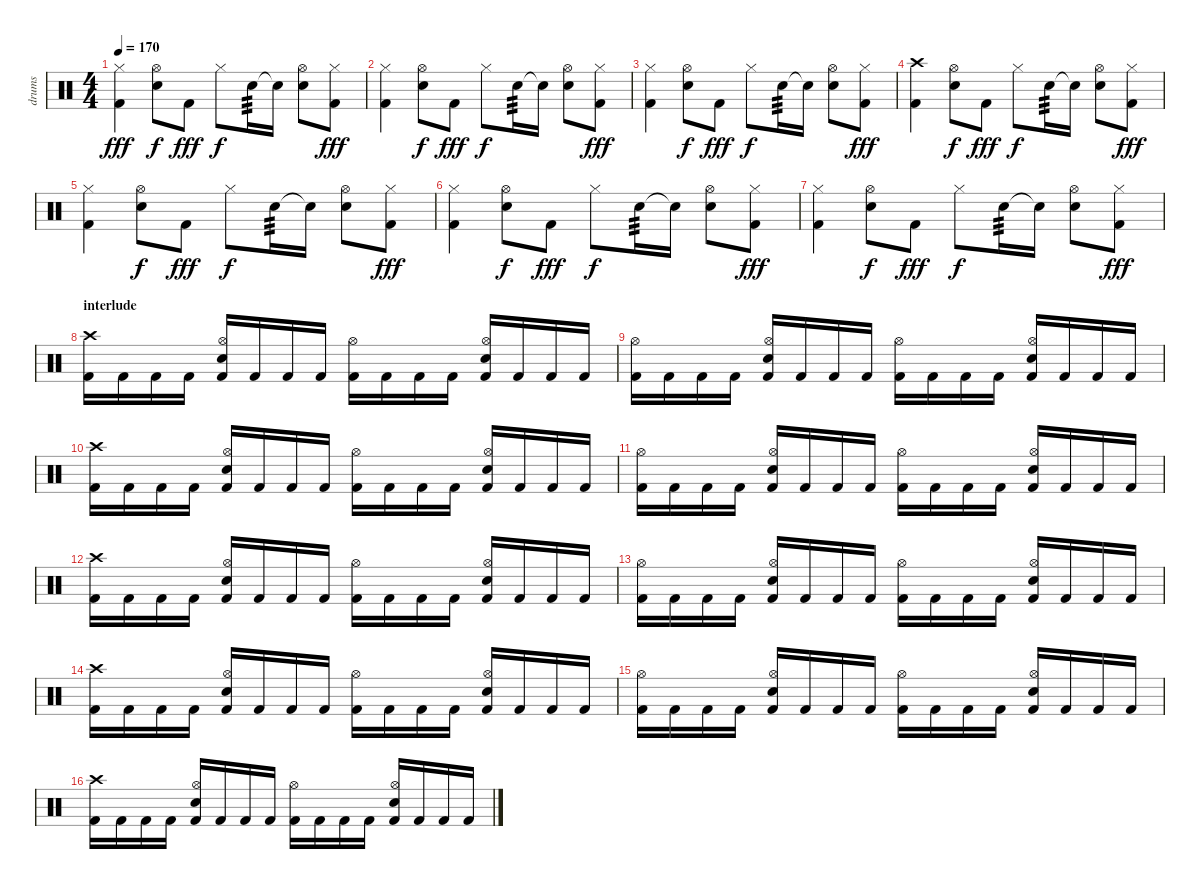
\track ("drums" "drums") {instrument percussion}
\staff {score}
\articulation defaults
\ts (4 4)
\tempo 170
\clef neutral
\ks c
("Hi-Hat (closed)" "Kick (hit) 2").4{dy fff} ("Hi-Hat (open)" "Snare (hit) 2").8{dy f} "Kick (hit) 2".8{dy fff} "Hi-Hat (closed)".8{dy f} "Snare (hit) 2".16{tp 3} "Snare (hit) 2"{t}.16 ("Hi-Hat (open)" "Snare (hit) 2").8 ("Hi-Hat (closed)" "Kick (hit) 2").8{dy fff} |
("Hi-Hat (closed)" "Kick (hit) 2").4 ("Hi-Hat (open)" "Snare (hit) 2").8{dy f} "Kick (hit) 2".8{dy fff} "Hi-Hat (closed)".8{dy f} "Snare (hit) 2".16{tp 3} "Snare (hit) 2"{t}.16 ("Hi-Hat (open)" "Snare (hit) 2").8 ("Hi-Hat (closed)" "Kick (hit) 2").8{dy fff} |
("Hi-Hat (closed)" "Kick (hit) 2").4 ("Hi-Hat (open)" "Snare (hit) 2").8{dy f} "Kick (hit) 2".8{dy fff} "Hi-Hat (closed)".8{dy f} "Snare (hit) 2".16{tp 3} "Snare (hit) 2"{t}.16 ("Hi-Hat (open)" "Snare (hit) 2").8 ("Hi-Hat (closed)" "Kick (hit) 2").8{dy fff} |
("Crash high (hit)" "Kick (hit) 2").4 ("Hi-Hat (open)" "Snare (hit) 2").8{dy f} "Kick (hit) 2".8{dy fff} "Hi-Hat (closed)".8{dy f} "Snare (hit) 2".16{tp 3} "Snare (hit) 2"{t}.16 ("Hi-Hat (open)" "Snare (hit) 2").8 ("Hi-Hat (closed)" "Kick (hit) 2").8{dy fff} |
("Hi-Hat (closed)" "Kick (hit) 2").4 ("Hi-Hat (open)" "Snare (hit) 2").8{dy f} "Kick (hit) 2".8{dy fff} "Hi-Hat (closed)".8{dy f} "Snare (hit) 2".16{tp 3} "Snare (hit) 2"{t}.16 ("Hi-Hat (open)" "Snare (hit) 2").8 ("Hi-Hat (closed)" "Kick (hit) 2").8{dy fff} |
("Hi-Hat (closed)" "Kick (hit) 2").4 ("Hi-Hat (open)" "Snare (hit) 2").8{dy f} "Kick (hit) 2".8{dy fff} "Hi-Hat (closed)".8{dy f} "Snare (hit) 2".16{tp 3} "Snare (hit) 2"{t}.16 ("Hi-Hat (open)" "Snare (hit) 2").8 ("Hi-Hat (closed)" "Kick (hit) 2").8{dy fff} |
("Hi-Hat (closed)" "Kick (hit) 2").4 ("Hi-Hat (open)" "Snare (hit) 2").8{dy f} "Kick (hit) 2".8{dy fff} "Hi-Hat (closed)".8{dy f} "Snare (hit) 2".16{tp 3} "Snare (hit) 2"{t}.16 ("Hi-Hat (open)" "Snare (hit) 2").8 ("Hi-Hat (closed)" "Kick (hit) 2").8{dy fff} |
\section ("" "interlude")
("Crash high (hit)" "Kick (hit) 2").16 "Kick (hit) 2".16 "Kick (hit) 2".16 "Kick (hit) 2".16 ("Hi-Hat (open)" "Snare (hit) 2" "Kick (hit) 2").16 "Kick (hit) 2".16 "Kick (hit) 2".16 "Kick (hit) 2".16 ("Hi-Hat (open)" "Kick (hit) 2").16 "Kick (hit) 2".16 "Kick (hit) 2".16 "Kick (hit) 2".16 ("Hi-Hat (open)" "Snare (hit) 2" "Kick (hit) 2").16 "Kick (hit) 2".16 "Kick (hit) 2".16 "Kick (hit) 2".16 |
("Hi-Hat (open)" "Kick (hit) 2").16 "Kick (hit) 2".16 "Kick (hit) 2".16 "Kick (hit) 2".16 ("Hi-Hat (open)" "Snare (hit) 2" "Kick (hit) 2").16 "Kick (hit) 2".16 "Kick (hit) 2".16 "Kick (hit) 2".16 ("Hi-Hat (open)" "Kick (hit) 2").16 "Kick (hit) 2".16 "Kick (hit) 2".16 "Kick (hit) 2".16 ("Hi-Hat (open)" "Snare (hit) 2" "Kick (hit) 2").16 "Kick (hit) 2".16 "Kick (hit) 2".16 "Kick (hit) 2".16 |
("Crash high (hit)" "Kick (hit) 2").16 "Kick (hit) 2".16 "Kick (hit) 2".16 "Kick (hit) 2".16 ("Hi-Hat (open)" "Snare (hit) 2" "Kick (hit) 2").16 "Kick (hit) 2".16 "Kick (hit) 2".16 "Kick (hit) 2".16 ("Hi-Hat (open)" "Kick (hit) 2").16 "Kick (hit) 2".16 "Kick (hit) 2".16 "Kick (hit) 2".16 ("Hi-Hat (open)" "Snare (hit) 2" "Kick (hit) 2").16 "Kick (hit) 2".16 "Kick (hit) 2".16 "Kick (hit) 2".16 |
("Hi-Hat (open)" "Kick (hit) 2").16 "Kick (hit) 2".16 "Kick (hit) 2".16 "Kick (hit) 2".16 ("Hi-Hat (open)" "Snare (hit) 2" "Kick (hit) 2").16 "Kick (hit) 2".16 "Kick (hit) 2".16 "Kick (hit) 2".16 ("Hi-Hat (open)" "Kick (hit) 2").16 "Kick (hit) 2".16 "Kick (hit) 2".16 "Kick (hit) 2".16 ("Hi-Hat (open)" "Snare (hit) 2" "Kick (hit) 2").16 "Kick (hit) 2".16 "Kick (hit) 2".16 "Kick (hit) 2".16 |
("Crash high (hit)" "Kick (hit) 2").16 "Kick (hit) 2".16 "Kick (hit) 2".16 "Kick (hit) 2".16 ("Hi-Hat (open)" "Snare (hit) 2" "Kick (hit) 2").16 "Kick (hit) 2".16 "Kick (hit) 2".16 "Kick (hit) 2".16 ("Hi-Hat (open)" "Kick (hit) 2").16 "Kick (hit) 2".16 "Kick (hit) 2".16 "Kick (hit) 2".16 ("Hi-Hat (open)" "Snare (hit) 2" "Kick (hit) 2").16 "Kick (hit) 2".16 "Kick (hit) 2".16 "Kick (hit) 2".16 |
("Hi-Hat (open)" "Kick (hit) 2").16 "Kick (hit) 2".16 "Kick (hit) 2".16 "Kick (hit) 2".16 ("Hi-Hat (open)" "Snare (hit) 2" "Kick (hit) 2").16 "Kick (hit) 2".16 "Kick (hit) 2".16 "Kick (hit) 2".16 ("Hi-Hat (open)" "Kick (hit) 2").16 "Kick (hit) 2".16 "Kick (hit) 2".16 "Kick (hit) 2".16 ("Hi-Hat (open)" "Snare (hit) 2" "Kick (hit) 2").16 "Kick (hit) 2".16 "Kick (hit) 2".16 "Kick (hit) 2".16 |
("Crash high (hit)" "Kick (hit) 2").16 "Kick (hit) 2".16 "Kick (hit) 2".16 "Kick (hit) 2".16 ("Hi-Hat (open)" "Snare (hit) 2" "Kick (hit) 2").16 "Kick (hit) 2".16 "Kick (hit) 2".16 "Kick (hit) 2".16 ("Hi-Hat (open)" "Kick (hit) 2").16 "Kick (hit) 2".16 "Kick (hit) 2".16 "Kick (hit) 2".16 ("Hi-Hat (open)" "Snare (hit) 2" "Kick (hit) 2").16 "Kick (hit) 2".16 "Kick (hit) 2".16 "Kick (hit) 2".16 |
("Hi-Hat (open)" "Kick (hit) 2").16 "Kick (hit) 2".16 "Kick (hit) 2".16 "Kick (hit) 2".16 ("Hi-Hat (open)" "Snare (hit) 2" "Kick (hit) 2").16 "Kick (hit) 2".16 "Kick (hit) 2".16 "Kick (hit) 2".16 ("Hi-Hat (open)" "Kick (hit) 2").16 "Kick (hit) 2".16 "Kick (hit) 2".16 "Kick (hit) 2".16 ("Hi-Hat (open)" "Snare (hit) 2" "Kick (hit) 2").16 "Kick (hit) 2".16 "Kick (hit) 2".16 "Kick (hit) 2".16 |
("Crash high (hit)" "Kick (hit) 2").16 "Kick (hit) 2".16 "Kick (hit) 2".16 "Kick (hit) 2".16 ("Hi-Hat (open)" "Snare (hit) 2" "Kick (hit) 2").16 "Kick (hit) 2".16 "Kick (hit) 2".16 "Kick (hit) 2".16 ("Hi-Hat (open)" "Kick (hit) 2").16 "Kick (hit) 2".16 "Kick (hit) 2".16 "Kick (hit) 2".16 ("Hi-Hat (open)" "Snare (hit) 2" "Kick (hit) 2").16 "Kick (hit) 2".16 "Kick (hit) 2".16 "Kick (hit) 2".16
